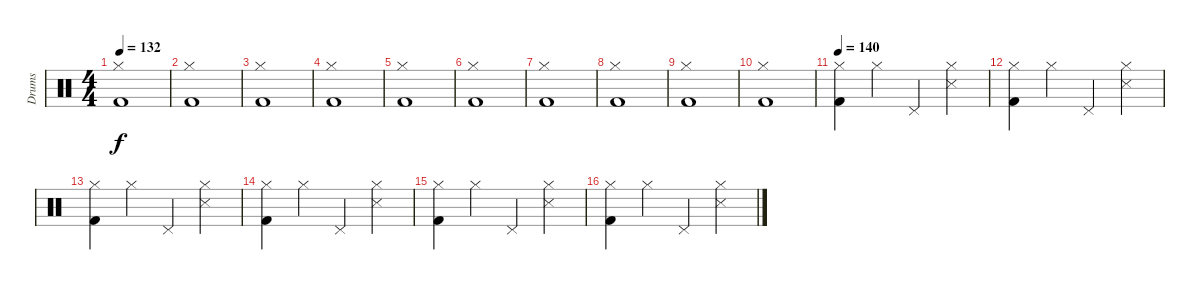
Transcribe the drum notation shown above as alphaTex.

\track ("Drums" "Drums") {instrument percussion}
\staff {score}
\articulation defaults
\ts (4 4)
\tempo 132
\clef neutral
\ks c
("Kick (hit) 2" "Hi-Hat (closed)").1{dy f} |
("Kick (hit) 2" "Hi-Hat (closed)").1 |
("Kick (hit) 2" "Hi-Hat (closed)").1 |
("Kick (hit) 2" "Hi-Hat (closed)").1 |
("Kick (hit) 2" "Hi-Hat (closed)").1 |
("Kick (hit) 2" "Hi-Hat (closed)").1 |
("Kick (hit) 2" "Hi-Hat (closed)").1 |
("Kick (hit) 2" "Hi-Hat (closed)").1 |
("Kick (hit) 2" "Hi-Hat (closed)").1 |
("Kick (hit) 2" "Hi-Hat (closed)").1 |
\tempo 140
("Kick (hit) 2" "Hi-Hat (closed)").4 "Hi-Hat (closed)".4 "Pedal Hi-Hat (hit)".4 ("Hi-Hat (closed)" "Snare (side stick) 3").4 |
("Kick (hit) 2" "Hi-Hat (closed)").4 "Hi-Hat (closed)".4 "Pedal Hi-Hat (hit)".4 ("Hi-Hat (closed)" "Snare (side stick) 3").4 |
("Kick (hit) 2" "Hi-Hat (closed)").4 "Hi-Hat (closed)".4 "Pedal Hi-Hat (hit)".4 ("Hi-Hat (closed)" "Snare (side stick) 3").4 |
("Kick (hit) 2" "Hi-Hat (closed)").4 "Hi-Hat (closed)".4 "Pedal Hi-Hat (hit)".4 ("Hi-Hat (closed)" "Snare (side stick) 3").4 |
("Kick (hit) 2" "Hi-Hat (closed)").4 "Hi-Hat (closed)".4 "Pedal Hi-Hat (hit)".4 ("Hi-Hat (closed)" "Snare (side stick) 3").4 |
("Kick (hit) 2" "Hi-Hat (closed)").4 "Hi-Hat (closed)".4 "Pedal Hi-Hat (hit)".4 ("Hi-Hat (closed)" "Snare (side stick) 3").4
